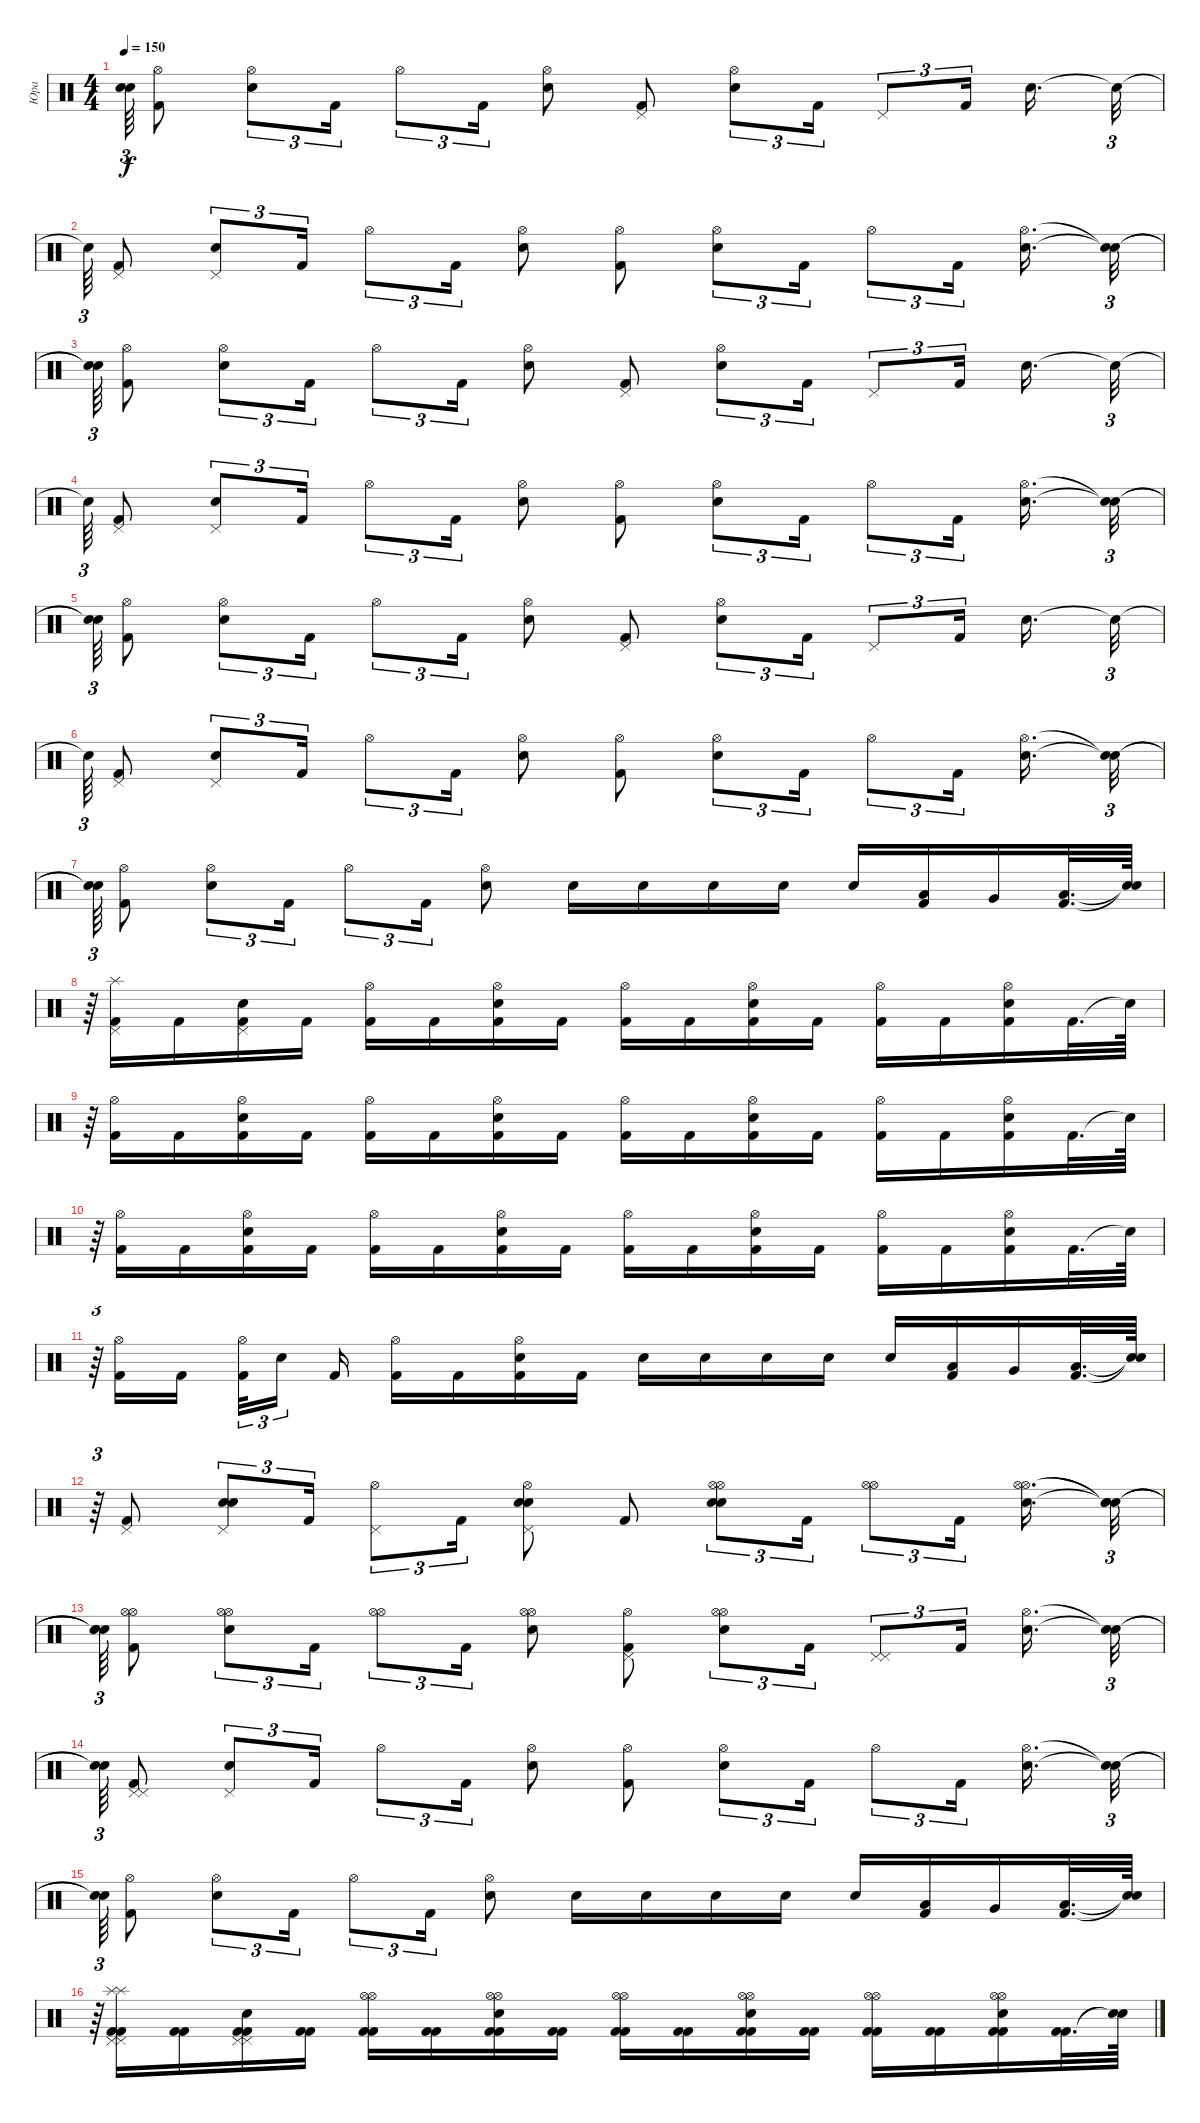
\track ("Юра" "Юра") {instrument percussion}
\staff {score}
\articulation defaults
\ts (4 4)
\tempo 150
\clef neutral
\ks c
("Snare (hit)"{t} "Snare (hit)"{t}).64{tu (3 2) dy f} ("Hi-Hat (open)" "Kick (hit) 2").8 ("Hi-Hat (open)" "Electric Snare (hit)").8{tu (3 2)} "Kick (hit) 2".16{tu (3 2)} "Hi-Hat (open)".8{tu (3 2)} "Kick (hit) 2".16{tu (3 2)} ("Electric Snare (hit)" "Hi-Hat (open)").8 ("Pedal Hi-Hat (hit)" "Kick (hit) 2").8 ("Hi-Hat (open)" "Electric Snare (hit)").8{tu (3 2)} "Kick (hit) 2".16{tu (3 2)} "Pedal Hi-Hat (hit)".8{tu (3 2)} "Kick (hit) 2".16{tu (3 2) beam splitsecondary} "Electric Snare (hit)".16{d} "Snare (hit)"{t}.32{tu (3 2)} |
"Snare (hit)"{t}.64{tu (3 2)} ("Pedal Hi-Hat (hit)" "Kick (hit) 2").8 ("Pedal Hi-Hat (hit)" "Electric Snare (hit)").8{tu (3 2)} "Kick (hit) 2".16{tu (3 2)} "Hi-Hat (open)".8{tu (3 2)} "Kick (hit) 2".16{tu (3 2)} ("Hi-Hat (open)" "Electric Snare (hit)").8 ("Hi-Hat (open)" "Kick (hit) 2").8 ("Hi-Hat (open)" "Electric Snare (hit)").8{tu (3 2)} "Kick (hit) 2".16{tu (3 2)} "Hi-Hat (open)".8{tu (3 2)} "Kick (hit) 2".16{tu (3 2) beam splitsecondary} ("Hi-Hat (open)" "Electric Snare (hit)").16{d} ("Snare (hit)"{t} "Snare (hit)"{t}).32{tu (3 2)} |
("Snare (hit)"{t} "Snare (hit)"{t}).64{tu (3 2)} ("Hi-Hat (open)" "Kick (hit) 2").8 ("Hi-Hat (open)" "Electric Snare (hit)").8{tu (3 2)} "Kick (hit) 2".16{tu (3 2)} "Hi-Hat (open)".8{tu (3 2)} "Kick (hit) 2".16{tu (3 2)} ("Hi-Hat (open)" "Electric Snare (hit)").8 ("Pedal Hi-Hat (hit)" "Kick (hit) 2").8 ("Hi-Hat (open)" "Electric Snare (hit)").8{tu (3 2)} "Kick (hit) 2".16{tu (3 2)} "Pedal Hi-Hat (hit)".8{tu (3 2)} "Kick (hit) 2".16{tu (3 2) beam splitsecondary} "Electric Snare (hit)".16{d} "Snare (hit)"{t}.32{tu (3 2)} |
"Snare (hit)"{t}.64{tu (3 2)} ("Pedal Hi-Hat (hit)" "Kick (hit) 2").8 ("Pedal Hi-Hat (hit)" "Electric Snare (hit)").8{tu (3 2)} "Kick (hit) 2".16{tu (3 2)} "Hi-Hat (open)".8{tu (3 2)} "Kick (hit) 2".16{tu (3 2)} ("Hi-Hat (open)" "Electric Snare (hit)").8 ("Hi-Hat (open)" "Kick (hit) 2").8 ("Hi-Hat (open)" "Electric Snare (hit)").8{tu (3 2)} "Kick (hit) 2".16{tu (3 2)} "Hi-Hat (open)".8{tu (3 2)} "Kick (hit) 2".16{tu (3 2) beam splitsecondary} ("Hi-Hat (open)" "Electric Snare (hit)").16{d} ("Snare (hit)"{t} "Snare (hit)"{t}).32{tu (3 2)} |
("Snare (hit)"{t} "Snare (hit)"{t}).64{tu (3 2)} ("Hi-Hat (open)" "Kick (hit) 2").8 ("Hi-Hat (open)" "Electric Snare (hit)").8{tu (3 2)} "Kick (hit) 2".16{tu (3 2)} "Hi-Hat (open)".8{tu (3 2)} "Kick (hit) 2".16{tu (3 2)} ("Hi-Hat (open)" "Electric Snare (hit)").8 ("Pedal Hi-Hat (hit)" "Kick (hit) 2").8 ("Hi-Hat (open)" "Electric Snare (hit)").8{tu (3 2)} "Kick (hit) 2".16{tu (3 2)} "Pedal Hi-Hat (hit)".8{tu (3 2)} "Kick (hit) 2".16{tu (3 2) beam splitsecondary} "Electric Snare (hit)".16{d} "Snare (hit)"{t}.32{tu (3 2)} |
"Snare (hit)"{t}.64{tu (3 2)} ("Pedal Hi-Hat (hit)" "Kick (hit) 2").8 ("Pedal Hi-Hat (hit)" "Electric Snare (hit)").8{tu (3 2)} "Kick (hit) 2".16{tu (3 2)} "Hi-Hat (open)".8{tu (3 2)} "Kick (hit) 2".16{tu (3 2)} ("Hi-Hat (open)" "Electric Snare (hit)").8 ("Hi-Hat (open)" "Kick (hit) 2").8 ("Hi-Hat (open)" "Electric Snare (hit)").8{tu (3 2)} "Kick (hit) 2".16{tu (3 2)} "Hi-Hat (open)".8{tu (3 2)} "Kick (hit) 2".16{tu (3 2) beam splitsecondary} ("Hi-Hat (open)" "Electric Snare (hit)").16{d} ("Snare (hit)"{t} "Snare (hit)"{t}).32{tu (3 2)} |
("Snare (hit)"{t} "Snare (hit)"{t}).64{tu (3 2)} ("Hi-Hat (open)" "Kick (hit) 2").8 ("Hi-Hat (open)" "Electric Snare (hit)").8{tu (3 2)} "Kick (hit) 2".16{tu (3 2)} "Hi-Hat (open)".8{tu (3 2)} "Kick (hit) 2".16{tu (3 2)} ("Hi-Hat (open)" "Electric Snare (hit)").8 "Electric Snare (hit)".16 "Electric Snare (hit)".16 "Electric Snare (hit)".16 "Electric Snare (hit)".16 "Electric Snare (hit)".16 ("Kick (hit) 2" "Low Tom (hit)").16 "Very Low Tom (hit)".16 ("Kick (hit) 2" "Low Floor Tom (hit)").32{d} ("Snare (hit)"{t} "Snare (hit)"{t}).64 |
r.64{tu (3 2)} ("Kick (hit) 2" "Pedal Hi-Hat (hit)" "Splash (hit)").16 "Kick (hit) 2".16 ("Kick (hit) 2" "Pedal Hi-Hat (hit)" "Electric Snare (hit)").16 "Kick (hit) 2".16 ("Kick (hit) 2" "Hi-Hat (open)").16 "Kick (hit) 2".16 ("Kick (hit) 2" "Hi-Hat (open)" "Electric Snare (hit)").16 "Kick (hit) 2".16 ("Hi-Hat (open)" "Kick (hit) 2").16 "Kick (hit) 2".16 ("Kick (hit) 2" "Hi-Hat (open)" "Electric Snare (hit)").16 "Kick (hit) 2".16 ("Kick (hit) 2" "Hi-Hat (open)").16 "Kick (hit) 2".16 ("Kick (hit) 2" "Hi-Hat (open)" "Electric Snare (hit)").16 "Kick (hit) 2".32{d} "Snare (hit)"{t}.64 |
r.64{tu (3 2)} ("Kick (hit) 2" "Hi-Hat (open)").16 "Kick (hit) 2".16 ("Kick (hit) 2" "Hi-Hat (open)" "Electric Snare (hit)").16 "Kick (hit) 2".16 ("Kick (hit) 2" "Hi-Hat (open)").16 "Kick (hit) 2".16 ("Kick (hit) 2" "Hi-Hat (open)" "Electric Snare (hit)").16 "Kick (hit) 2".16 ("Kick (hit) 2" "Hi-Hat (open)").16 "Kick (hit) 2".16 ("Kick (hit) 2" "Hi-Hat (open)" "Electric Snare (hit)").16 "Kick (hit) 2".16 ("Kick (hit) 2" "Hi-Hat (open)").16 "Kick (hit) 2".16 ("Kick (hit) 2" "Hi-Hat (open)" "Electric Snare (hit)").16 "Kick (hit) 2".32{d} "Snare (hit)"{t}.64 |
r.64{tu (3 2)} ("Kick (hit) 2" "Hi-Hat (open)").16 "Kick (hit) 2".16 ("Kick (hit) 2" "Hi-Hat (open)" "Electric Snare (hit)").16 "Kick (hit) 2".16 ("Kick (hit) 2" "Hi-Hat (open)").16 "Kick (hit) 2".16 ("Kick (hit) 2" "Hi-Hat (open)" "Electric Snare (hit)").16 "Kick (hit) 2".16 ("Kick (hit) 2" "Hi-Hat (open)").16 "Kick (hit) 2".16 ("Kick (hit) 2" "Hi-Hat (open)" "Electric Snare (hit)").16 "Kick (hit) 2".16 ("Kick (hit) 2" "Hi-Hat (open)").16 "Kick (hit) 2".16 ("Kick (hit) 2" "Hi-Hat (open)" "Electric Snare (hit)").16 "Kick (hit) 2".32{d} "Snare (hit)"{t}.64 |
r.64{tu (3 2)} ("Hi-Hat (open)" "Kick (hit) 2").16 "Kick (hit) 2".16{beam splitsecondary} ("Kick (hit) 2" "Hi-Hat (open)").32{tu (3 2)} "Electric Snare (hit)".16{tu (3 2) beam splitsecondary} "Kick (hit) 2".16 ("Hi-Hat (open)" "Kick (hit) 2").16 "Kick (hit) 2".16 ("Kick (hit) 2" "Hi-Hat (open)" "Electric Snare (hit)").16 "Kick (hit) 2".16 "Electric Snare (hit)".16 "Electric Snare (hit)".16 "Electric Snare (hit)".16 "Electric Snare (hit)".16 "Electric Snare (hit)".16 ("Low Tom (hit)" "Kick (hit) 2").16 "Very Low Tom (hit)".16 ("Kick (hit) 2" "Low Floor Tom (hit)").32{d} ("Snare (hit)"{t} "Snare (hit)"{t}).64 |
r.64{tu (3 2)} ("Kick (hit) 2" "Pedal Hi-Hat (hit)").8 ("Pedal Hi-Hat (hit)" "Electric Snare (hit)" "Electric Snare (hit)").8{tu (3 2)} "Kick (hit) 2".16{tu (3 2)} ("Hi-Hat (open)" "Pedal Hi-Hat (hit)").8{tu (3 2)} "Kick (hit) 2".16{tu (3 2)} ("Hi-Hat (open)" "Electric Snare (hit)" "Electric Snare (hit)" "Pedal Hi-Hat (hit)").8 "Kick (hit) 2".8 ("Electric Snare (hit)" "Electric Snare (hit)" "Hi-Hat (open)" "Hi-Hat (open)").8{tu (3 2)} "Kick (hit) 2".16{tu (3 2)} ("Hi-Hat (open)" "Hi-Hat (open)").8{tu (3 2)} "Kick (hit) 2".16{tu (3 2) beam splitsecondary} ("Hi-Hat (open)" "Electric Snare (hit)" "Hi-Hat (open)").16{d} ("Snare (hit)"{t} "Snare (hit)"{t} "Snare (hit)"{t}).32{tu (3 2)} |
("Snare (hit)"{t} "Snare (hit)"{t} "Snare (hit)"{t}).64{tu (3 2)} ("Hi-Hat (open)" "Kick (hit) 2" "Hi-Hat (open)").8 ("Hi-Hat (open)" "Electric Snare (hit)" "Hi-Hat (open)").8{tu (3 2)} "Kick (hit) 2".16{tu (3 2)} ("Hi-Hat (open)" "Hi-Hat (open)").8{tu (3 2)} "Kick (hit) 2".16{tu (3 2)} ("Hi-Hat (open)" "Electric Snare (hit)" "Hi-Hat (open)").8 ("Pedal Hi-Hat (hit)" "Hi-Hat (open)" "Kick (hit) 2").8 ("Hi-Hat (open)" "Hi-Hat (open)" "Electric Snare (hit)").8{tu (3 2)} "Kick (hit) 2".16{tu (3 2)} ("Pedal Hi-Hat (hit)" "Pedal Hi-Hat (hit)").8{tu (3 2)} "Kick (hit) 2".16{tu (3 2) beam splitsecondary} ("Hi-Hat (open)" "Electric Snare (hit)").16{d} ("Snare (hit)"{t} "Snare (hit)"{t}).32{tu (3 2)} |
("Snare (hit)"{t} "Snare (hit)"{t}).64{tu (3 2)} ("Kick (hit) 2" "Pedal Hi-Hat (hit)" "Pedal Hi-Hat (hit)").8 ("Pedal Hi-Hat (hit)" "Electric Snare (hit)").8{tu (3 2)} "Kick (hit) 2".16{tu (3 2)} "Hi-Hat (open)".8{tu (3 2)} "Kick (hit) 2".16{tu (3 2)} ("Hi-Hat (open)" "Electric Snare (hit)").8 ("Kick (hit) 2" "Hi-Hat (open)").8 ("Electric Snare (hit)" "Hi-Hat (open)").8{tu (3 2)} "Kick (hit) 2".16{tu (3 2)} "Hi-Hat (open)".8{tu (3 2)} "Kick (hit) 2".16{tu (3 2) beam splitsecondary} ("Hi-Hat (open)" "Electric Snare (hit)").16{d} ("Snare (hit)"{t} "Snare (hit)"{t}).32{tu (3 2)} |
("Snare (hit)"{t} "Snare (hit)"{t}).64{tu (3 2)} ("Hi-Hat (open)" "Kick (hit) 2").8 ("Hi-Hat (open)" "Electric Snare (hit)").8{tu (3 2)} "Kick (hit) 2".16{tu (3 2)} "Hi-Hat (open)".8{tu (3 2)} "Kick (hit) 2".16{tu (3 2)} ("Electric Snare (hit)" "Hi-Hat (open)").8 "Electric Snare (hit)".16 "Electric Snare (hit)".16 "Electric Snare (hit)".16 "Electric Snare (hit)".16 "Electric Snare (hit)".16 ("Kick (hit) 2" "Low Tom (hit)").16 "Very Low Tom (hit)".16 ("Kick (hit) 2" "Low Floor Tom (hit)").32{d} ("Snare (hit)"{t} "Snare (hit)"{t}).64 |
r.64{tu (3 2)} ("Pedal Hi-Hat (hit)" "Splash (hit)" "Pedal Hi-Hat (hit)" "Splash (hit)" "Kick (hit) 2" "Kick (hit) 2").16 ("Kick (hit) 2" "Kick (hit) 2").16 ("Kick (hit) 2" "Electric Snare (hit)" "Pedal Hi-Hat (hit)" "Pedal Hi-Hat (hit)" "Kick (hit) 2").16 ("Kick (hit) 2" "Kick (hit) 2").16 ("Kick (hit) 2" "Hi-Hat (open)" "Hi-Hat (open)" "Kick (hit) 2").16 ("Kick (hit) 2" "Kick (hit) 2").16 ("Electric Snare (hit)" "Hi-Hat (open)" "Kick (hit) 2" "Kick (hit) 2" "Hi-Hat (open)").16 ("Kick (hit) 2" "Kick (hit) 2").16 ("Hi-Hat (open)" "Kick (hit) 2" "Hi-Hat (open)" "Kick (hit) 2").16 ("Kick (hit) 2" "Kick (hit) 2").16 ("Kick (hit) 2" "Electric Snare (hit)" "Kick (hit) 2" "Hi-Hat (open)" "Hi-Hat (open)").16 ("Kick (hit) 2" "Kick (hit) 2").16 ("Hi-Hat (open)" "Hi-Hat (open)" "Kick (hit) 2" "Kick (hit) 2").16 ("Kick (hit) 2" "Kick (hit) 2").16 ("Electric Snare (hit)" "Kick (hit) 2" "Hi-Hat (open)" "Kick (hit) 2" "Hi-Hat (open)").16 ("Kick (hit) 2" "Kick (hit) 2").32{d} ("Snare (hit)"{t} "Snare (hit)"{t}).64
